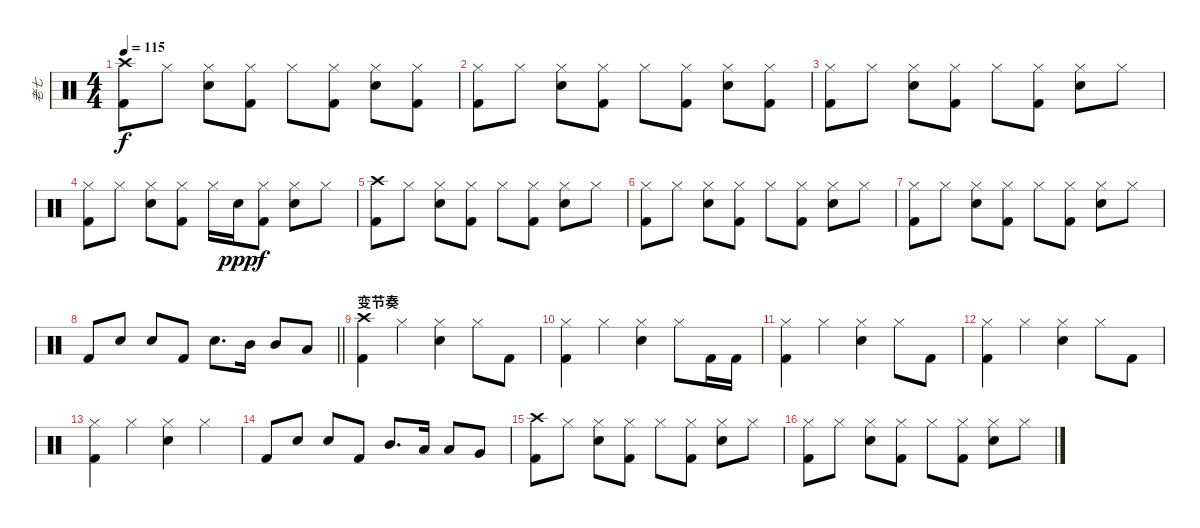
\track ("老七" "老七") {instrument percussion}
\staff {score}
\articulation defaults
\ts (4 4)
\tempo 115
\clef neutral
\ks c
("Crash high (hit)" "Kick (hit) 2").8{dy f} "Hi-Hat (closed)".8 ("Hi-Hat (closed)" "Electric Snare (hit)").8 ("Hi-Hat (closed)" "Kick (hit) 2").8 "Hi-Hat (closed)".8 ("Hi-Hat (closed)" "Kick (hit) 2").8 ("Hi-Hat (closed)" "Electric Snare (hit)").8 ("Hi-Hat (closed)" "Kick (hit) 2").8 |
("Hi-Hat (closed)" "Kick (hit) 2").8 "Hi-Hat (closed)".8 ("Hi-Hat (closed)" "Electric Snare (hit)").8 ("Hi-Hat (closed)" "Kick (hit) 2").8 "Hi-Hat (closed)".8 ("Hi-Hat (closed)" "Kick (hit) 2").8 ("Hi-Hat (closed)" "Electric Snare (hit)").8 ("Hi-Hat (closed)" "Kick (hit) 2").8 |
("Hi-Hat (closed)" "Kick (hit) 2").8 "Hi-Hat (closed)".8 ("Hi-Hat (closed)" "Electric Snare (hit)").8 ("Hi-Hat (closed)" "Kick (hit) 2").8 "Hi-Hat (closed)".8 ("Hi-Hat (closed)" "Kick (hit) 2").8 ("Hi-Hat (closed)" "Electric Snare (hit)").8 "Hi-Hat (closed)".8 |
("Hi-Hat (closed)" "Kick (hit) 2").8 "Hi-Hat (closed)".8 ("Hi-Hat (closed)" "Electric Snare (hit)").8 ("Hi-Hat (closed)" "Kick (hit) 2").8 "Hi-Hat (closed)".16 "Electric Snare (hit)".16{dy ppp} ("Hi-Hat (closed)" "Kick (hit) 2").8{dy f} ("Hi-Hat (closed)" "Electric Snare (hit)").8 "Hi-Hat (closed)".8 |
("Crash high (hit)" "Kick (hit) 2").8 "Hi-Hat (closed)".8 ("Hi-Hat (closed)" "Electric Snare (hit)").8 ("Hi-Hat (closed)" "Kick (hit) 2").8 "Hi-Hat (closed)".8 ("Hi-Hat (closed)" "Kick (hit) 2").8 ("Hi-Hat (closed)" "Electric Snare (hit)").8 "Hi-Hat (closed)".8 |
("Hi-Hat (closed)" "Kick (hit) 2").8 "Hi-Hat (closed)".8 ("Hi-Hat (closed)" "Electric Snare (hit)").8 ("Hi-Hat (closed)" "Kick (hit) 2").8 "Hi-Hat (closed)".8 ("Hi-Hat (closed)" "Kick (hit) 2").8 ("Hi-Hat (closed)" "Electric Snare (hit)").8 "Hi-Hat (closed)".8 |
("Hi-Hat (closed)" "Kick (hit) 2").8 "Hi-Hat (closed)".8 ("Hi-Hat (closed)" "Electric Snare (hit)").8 ("Hi-Hat (closed)" "Kick (hit) 2").8 "Hi-Hat (closed)".8 ("Hi-Hat (closed)" "Kick (hit) 2").8 ("Hi-Hat (closed)" "Electric Snare (hit)").8 "Hi-Hat (closed)".8 |
\barLineRight lightlight "Kick (hit) 2".8 "Electric Snare (hit)".8 "Electric Snare (hit)".8 "Kick (hit) 2".8 "Electric Snare (hit)".8{d} "Mid Tom (hit)".16 "Mid Tom (hit)".8 "Low Tom (hit)".8
|
\section ("" "变节奏")
("Crash high (hit)" "Kick (hit) 2").4 "Hi-Hat (closed)".4 ("Hi-Hat (closed)" "Electric Snare (hit)").4 "Hi-Hat (closed)".8 "Kick (hit) 2".8 |
("Hi-Hat (closed)" "Kick (hit) 2").4 "Hi-Hat (closed)".4 ("Hi-Hat (closed)" "Electric Snare (hit)").4 "Hi-Hat (closed)".8 "Kick (hit) 2".16 "Kick (hit) 2".16 |
("Hi-Hat (closed)" "Kick (hit) 2").4 "Hi-Hat (closed)".4 ("Hi-Hat (closed)" "Electric Snare (hit)").4 "Hi-Hat (closed)".8 "Kick (hit) 2".8 |
("Hi-Hat (closed)" "Kick (hit) 2").4 "Hi-Hat (closed)".4 ("Hi-Hat (closed)" "Electric Snare (hit)").4 "Hi-Hat (closed)".8 "Kick (hit) 2".8 |
("Hi-Hat (closed)" "Kick (hit) 2").4 "Hi-Hat (closed)".4 ("Hi-Hat (closed)" "Electric Snare (hit)").4 "Hi-Hat (closed)".4 |
"Kick (hit) 2".8 "Electric Snare (hit)".8 "Electric Snare (hit)".8 "Kick (hit) 2".8 "Mid Tom (hit)".8{d} "Low Tom (hit)".16 "Low Tom (hit)".8 "Very Low Tom (hit)".8 |
("Crash high (hit)" "Kick (hit) 2").8 "Hi-Hat (closed)".8 ("Hi-Hat (closed)" "Electric Snare (hit)").8 ("Hi-Hat (closed)" "Kick (hit) 2").8 "Hi-Hat (closed)".8 ("Hi-Hat (closed)" "Kick (hit) 2").8 ("Hi-Hat (closed)" "Electric Snare (hit)").8 "Hi-Hat (closed)".8 |
("Hi-Hat (closed)" "Kick (hit) 2").8 "Hi-Hat (closed)".8 ("Hi-Hat (closed)" "Electric Snare (hit)").8 ("Hi-Hat (closed)" "Kick (hit) 2").8 "Hi-Hat (closed)".8 ("Hi-Hat (closed)" "Kick (hit) 2").8 ("Hi-Hat (closed)" "Electric Snare (hit)").8 "Hi-Hat (closed)".8
